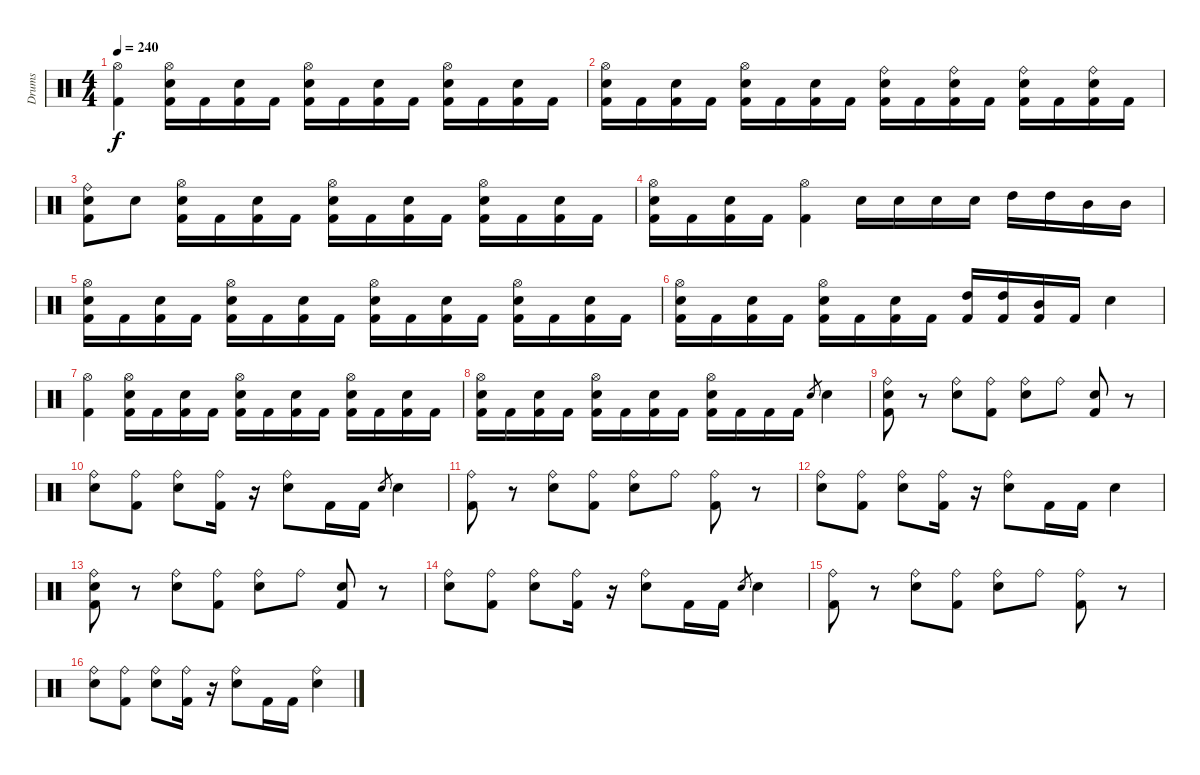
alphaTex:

\track ("Drums" "Drums") {instrument percussion}
\staff {score}
\articulation defaults
\ts (4 4)
\tempo 240
\clef neutral
\ks c
("Hi-Hat (open)" "Kick (hit) 2").4{dy f} ("Hi-Hat (open)" "Snare (hit) 2" "Kick (hit) 2").16 "Kick (hit) 2".16 ("Snare (hit) 2" "Kick (hit) 2").16 "Kick (hit) 2".16 ("Hi-Hat (open)" "Snare (hit) 2" "Kick (hit) 2").16 "Kick (hit) 2".16 ("Snare (hit) 2" "Kick (hit) 2").16 "Kick (hit) 2".16 ("Hi-Hat (open)" "Snare (hit) 2" "Kick (hit) 2").16 "Kick (hit) 2".16 ("Snare (hit) 2" "Kick (hit) 2").16 "Kick (hit) 2".16 |
("Hi-Hat (open)" "Snare (hit) 2" "Kick (hit) 2").16 "Kick (hit) 2".16 ("Snare (hit) 2" "Kick (hit) 2").16 "Kick (hit) 2".16 ("Hi-Hat (open)" "Snare (hit) 2" "Kick (hit) 2").16 "Kick (hit) 2".16 ("Snare (hit) 2" "Kick (hit) 2").16 "Kick (hit) 2".16 ("Ride (bell)" "Snare (hit) 2" "Kick (hit) 2").16 "Kick (hit) 2".16 ("Ride (bell)" "Snare (hit) 2" "Kick (hit) 2").16 "Kick (hit) 2".16 ("Ride (bell)" "Snare (hit) 2" "Kick (hit) 2").16 "Kick (hit) 2".16 ("Ride (bell)" "Snare (hit) 2" "Kick (hit) 2").16 "Kick (hit) 2".16 |
("Ride (bell)" "Snare (hit) 2" "Kick (hit) 2").8 "Snare (hit) 2".8 ("Hi-Hat (open)" "Snare (hit) 2" "Kick (hit) 2").16 "Kick (hit) 2".16 ("Snare (hit) 2" "Kick (hit) 2").16 "Kick (hit) 2".16 ("Hi-Hat (open)" "Snare (hit) 2" "Kick (hit) 2").16 "Kick (hit) 2".16 ("Snare (hit) 2" "Kick (hit) 2").16 "Kick (hit) 2".16 ("Hi-Hat (open)" "Snare (hit) 2" "Kick (hit) 2").16 "Kick (hit) 2".16 ("Snare (hit) 2" "Kick (hit) 2").16 "Kick (hit) 2".16 |
("Hi-Hat (open)" "Snare (hit) 2" "Kick (hit) 2").16 "Kick (hit) 2".16 ("Snare (hit) 2" "Kick (hit) 2").16 "Kick (hit) 2".16 ("Hi-Hat (open)" "Kick (hit) 2").4 "Snare (hit) 2".16 "Snare (hit) 2".16 "Snare (hit) 2".16 "Snare (hit) 2".16 "High Tom (hit)".16 "High Tom (hit)".16 "Mid Tom (hit)".16 "Mid Tom (hit)".16 |
("Hi-Hat (open)" "Snare (hit) 2" "Kick (hit) 2").16 "Kick (hit) 2".16 ("Snare (hit) 2" "Kick (hit) 2").16 "Kick (hit) 2".16 ("Hi-Hat (open)" "Snare (hit) 2" "Kick (hit) 2").16 "Kick (hit) 2".16 ("Snare (hit) 2" "Kick (hit) 2").16 "Kick (hit) 2".16 ("Hi-Hat (open)" "Snare (hit) 2" "Kick (hit) 2").16 "Kick (hit) 2".16 ("Snare (hit) 2" "Kick (hit) 2").16 "Kick (hit) 2".16 ("Hi-Hat (open)" "Snare (hit) 2" "Kick (hit) 2").16 "Kick (hit) 2".16 ("Snare (hit) 2" "Kick (hit) 2").16 "Kick (hit) 2".16 |
("Hi-Hat (open)" "Snare (hit) 2" "Kick (hit) 2").16 "Kick (hit) 2".16 ("Snare (hit) 2" "Kick (hit) 2").16 "Kick (hit) 2".16 ("Hi-Hat (open)" "Snare (hit) 2" "Kick (hit) 2").16 "Kick (hit) 2".16 ("Snare (hit) 2" "Kick (hit) 2").16 "Kick (hit) 2".16 ("High Tom (hit)" "Kick (hit) 2").16 ("High Tom (hit)" "Kick (hit) 2").16 ("Mid Tom (hit)" "Kick (hit) 2").16 "Kick (hit) 2".16 "Snare (hit) 2".4 |
("Hi-Hat (open)" "Kick (hit) 2").4 ("Hi-Hat (open)" "Snare (hit) 2" "Kick (hit) 2").16 "Kick (hit) 2".16 ("Snare (hit) 2" "Kick (hit) 2").16 "Kick (hit) 2".16 ("Hi-Hat (open)" "Snare (hit) 2" "Kick (hit) 2").16 "Kick (hit) 2".16 ("Snare (hit) 2" "Kick (hit) 2").16 "Kick (hit) 2".16 ("Hi-Hat (open)" "Snare (hit) 2" "Kick (hit) 2").16 "Kick (hit) 2".16 ("Snare (hit) 2" "Kick (hit) 2").16 "Kick (hit) 2".16 |
("Hi-Hat (open)" "Snare (hit) 2" "Kick (hit) 2").16 "Kick (hit) 2".16 ("Snare (hit) 2" "Kick (hit) 2").16 "Kick (hit) 2".16 ("Hi-Hat (open)" "Snare (hit) 2" "Kick (hit) 2").16 "Kick (hit) 2".16 ("Snare (hit) 2" "Kick (hit) 2").16 "Kick (hit) 2".16 ("Hi-Hat (open)" "Snare (hit) 2" "Kick (hit) 2").16 "Kick (hit) 2".16 "Kick (hit) 2".16 "Kick (hit) 2".16 "Snare (hit) 2".8{gr} "Snare (hit) 2".4 |
("Ride (bell)" "Snare (hit) 2" "Kick (hit) 2").8 r.8 ("Ride (bell)" "Snare (hit) 2").8 ("Ride (bell)" "Kick (hit) 2").8 ("Ride (bell)" "Snare (hit) 2").8 "Ride (bell)".8 ("Snare (hit) 2" "Kick (hit) 2").8 r.8 |
("Ride (bell)" "Snare (hit) 2").8 ("Ride (bell)" "Kick (hit) 2").8 ("Ride (bell)" "Snare (hit) 2").8 ("Ride (bell)" "Kick (hit) 2").16 r.16 ("Ride (bell)" "Snare (hit) 2").8 "Kick (hit) 2".16 "Kick (hit) 2".16 "Snare (hit) 2".8{gr} "Snare (hit) 2".4 |
("Ride (bell)" "Kick (hit) 2").8 r.8 ("Ride (bell)" "Snare (hit) 2").8 ("Ride (bell)" "Kick (hit) 2").8 ("Ride (bell)" "Snare (hit) 2").8 "Ride (bell)".8 ("Ride (bell)" "Kick (hit) 2").8 r.8 |
("Ride (bell)" "Snare (hit) 2").8 ("Ride (bell)" "Kick (hit) 2").8 ("Ride (bell)" "Snare (hit) 2").8 ("Ride (bell)" "Kick (hit) 2").16 r.16 ("Ride (bell)" "Snare (hit) 2").8 "Kick (hit) 2".16 "Kick (hit) 2".16 "Snare (hit) 2".4 |
("Ride (bell)" "Snare (hit) 2" "Kick (hit) 2").8 r.8 ("Ride (bell)" "Snare (hit) 2").8 ("Ride (bell)" "Kick (hit) 2").8 ("Ride (bell)" "Snare (hit) 2").8 "Ride (bell)".8 ("Snare (hit) 2" "Kick (hit) 2").8 r.8 |
("Ride (bell)" "Snare (hit) 2").8 ("Ride (bell)" "Kick (hit) 2").8 ("Ride (bell)" "Snare (hit) 2").8 ("Ride (bell)" "Kick (hit) 2").16 r.16 ("Ride (bell)" "Snare (hit) 2").8 "Kick (hit) 2".16 "Kick (hit) 2".16 "Snare (hit) 2".8{gr} "Snare (hit) 2".4 |
("Ride (bell)" "Kick (hit) 2").8 r.8 ("Ride (bell)" "Snare (hit) 2").8 ("Ride (bell)" "Kick (hit) 2").8 ("Ride (bell)" "Snare (hit) 2").8 "Ride (bell)".8 ("Ride (bell)" "Kick (hit) 2").8 r.8 |
("Ride (bell)" "Snare (hit) 2").8 ("Ride (bell)" "Kick (hit) 2").8 ("Ride (bell)" "Snare (hit) 2").8 ("Ride (bell)" "Kick (hit) 2").16 r.16 ("Ride (bell)" "Snare (hit) 2").8 "Kick (hit) 2".16 "Kick (hit) 2".16 ("Ride (bell)" "Snare (hit) 2").4
